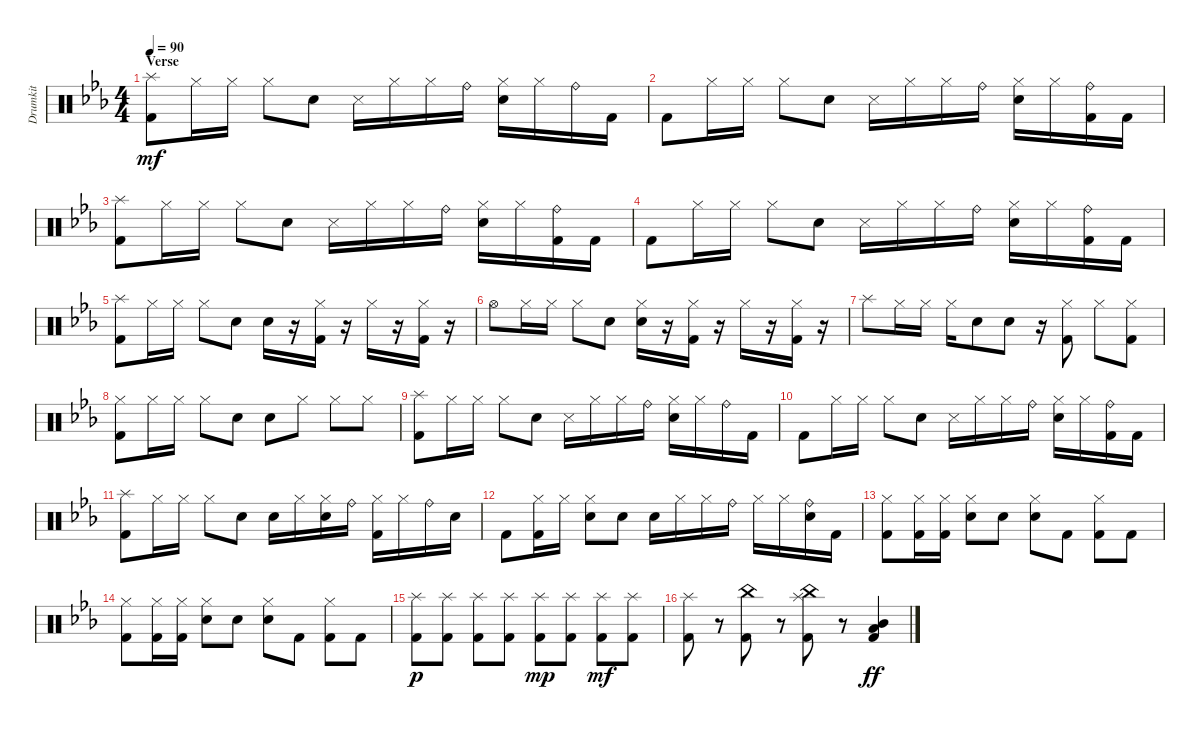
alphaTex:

\track ("Drumkit" "Drumkit") {instrument percussion}
\staff {score}
\articulation defaults
\ts (4 4)
\section ("" "Verse")
\tempo 90
\clef neutral
\ks cminor
("Kick (hit) 2" "Splash (hit)").8{dy mf} "Hi-Hat (closed)".16 "Hi-Hat (closed)".16 "Hi-Hat (closed)".8 "Snare (hit) 2".8 "Snare (side stick) 3".16 "Hi-Hat (closed)".16 "Hi-Hat (closed)".16 "Ride (bell)".16 ("Hi-Hat (closed)" "Snare (hit) 2").16 "Hi-Hat (closed)".16 "Ride (bell)".16 "Kick (hit) 2".16 |
"Kick (hit) 2".8 "Hi-Hat (closed)".16 "Hi-Hat (closed)".16 "Hi-Hat (closed)".8 "Snare (hit) 2".8 "Snare (side stick) 3".16 "Hi-Hat (closed)".16 "Hi-Hat (closed)".16 "Ride (bell)".16 ("Hi-Hat (closed)" "Snare (hit) 2").16 "Hi-Hat (closed)".16 ("Ride (bell)" "Kick (hit) 2").16 "Kick (hit) 2".16 |
("Kick (hit) 2" "Splash (hit)").8 "Hi-Hat (closed)".16 "Hi-Hat (closed)".16 "Hi-Hat (closed)".8 "Snare (hit) 2".8 "Snare (side stick) 3".16 "Hi-Hat (closed)".16 "Hi-Hat (closed)".16 "Ride (bell)".16 ("Hi-Hat (closed)" "Snare (hit) 2").16 "Hi-Hat (closed)".16 ("Ride (bell)" "Kick (hit) 2").16 "Kick (hit) 2".16 |
"Kick (hit) 2".8 "Hi-Hat (closed)".16 "Hi-Hat (closed)".16 "Hi-Hat (closed)".8 "Snare (hit) 2".8 "Snare (side stick) 3".16 "Hi-Hat (closed)".16 "Hi-Hat (closed)".16 "Ride (bell)".16 ("Hi-Hat (closed)" "Snare (hit) 2").16 "Hi-Hat (closed)".16 ("Ride (bell)" "Kick (hit) 2").16 "Kick (hit) 2".16 |
("Kick (hit) 2" "Splash (hit)").8 "Hi-Hat (closed)".16 "Hi-Hat (closed)".16 "Hi-Hat (closed)".8 "Snare (hit) 2".8 "Snare (hit) 2".16 r.16 ("Hi-Hat (closed)" "Kick (hit) 2").16 r.16 "Hi-Hat (closed)".16 r.16 ("Kick (hit) 2" "Hi-Hat (closed)").16 r.16 |
"Hi-Hat (open)".8 "Hi-Hat (closed)".16 "Hi-Hat (closed)".16 "Hi-Hat (closed)".8 "Snare (hit) 2".8 ("Snare (hit) 2" "Hi-Hat (closed)").16 r.16 ("Kick (hit) 2" "Hi-Hat (closed)").16 r.16 "Hi-Hat (closed)".16 r.16 ("Kick (hit) 2" "Hi-Hat (closed)").16 r.16 |
"Splash (hit)".8 "Hi-Hat (closed)".16 "Hi-Hat (closed)".16 "Hi-Hat (closed)".16 "Snare (hit) 2".8 "Snare (hit) 2".8 r.16 ("Hi-Hat (closed)" "Kick (hit) 2").8 "Hi-Hat (closed)".8 ("Kick (hit) 2" "Hi-Hat (closed)").8 |
("Kick (hit) 2" "Hi-Hat (closed)").8 "Hi-Hat (closed)".16 "Hi-Hat (closed)".16 "Hi-Hat (closed)".8 "Snare (hit) 2".8 "Snare (hit) 2".8 "Hi-Hat (closed)".8 "Hi-Hat (closed)".8 "Hi-Hat (closed)".8 |
("Kick (hit) 2" "Splash (hit)").8 "Hi-Hat (closed)".16 "Hi-Hat (closed)".16 "Hi-Hat (closed)".8 "Snare (hit) 2".8 "Snare (side stick) 3".16 "Hi-Hat (closed)".16 "Hi-Hat (closed)".16 "Ride (bell)".16 ("Hi-Hat (closed)" "Snare (hit) 2").16 "Hi-Hat (closed)".16 "Ride (bell)".16 "Kick (hit) 2".16 |
"Kick (hit) 2".8 "Hi-Hat (closed)".16 "Hi-Hat (closed)".16 "Hi-Hat (closed)".8 "Snare (hit) 2".8 "Snare (side stick) 3".16 "Hi-Hat (closed)".16 "Hi-Hat (closed)".16 "Ride (bell)".16 ("Hi-Hat (closed)" "Snare (hit) 2").16 "Hi-Hat (closed)".16 ("Ride (bell)" "Kick (hit) 2").16 "Kick (hit) 2".16 |
("Kick (hit) 2" "Splash (hit)").8 "Hi-Hat (closed)".16 "Hi-Hat (closed)".16 "Hi-Hat (closed)".8 "Snare (hit) 2".8 "Snare (hit) 2".16 "Hi-Hat (closed)".16 ("Hi-Hat (closed)" "Snare (hit) 2").16 "Ride (bell)".16 ("Hi-Hat (closed)" "Kick (hit) 2").16 "Hi-Hat (closed)".16 "Ride (bell)".16 "Snare (hit) 2".16 |
"Kick (hit) 2".8 ("Hi-Hat (closed)" "Kick (hit) 2").16 "Hi-Hat (closed)".16 ("Hi-Hat (closed)" "Snare (hit) 2").8 "Snare (hit) 2".8 "Snare (hit) 2".16 "Hi-Hat (closed)".16 "Hi-Hat (closed)".16 "Ride (bell)".16 "Hi-Hat (closed)".16 "Hi-Hat (closed)".16 ("Ride (bell)" "Snare (hit) 2").16 "Kick (hit) 2".16 |
("Kick (hit) 2" "Hi-Hat (closed)").8 ("Hi-Hat (closed)" "Kick (hit) 2").16 ("Hi-Hat (closed)" "Kick (hit) 2").16 ("Hi-Hat (closed)" "Snare (hit) 2").8 "Snare (hit) 2".8 ("Snare (hit) 2" "Hi-Hat (closed)").8 "Kick (hit) 2".8 ("Hi-Hat (closed)" "Kick (hit) 2").8 "Kick (hit) 2".8 |
("Kick (hit) 2" "Hi-Hat (closed)").8 ("Hi-Hat (closed)" "Kick (hit) 2").16 ("Hi-Hat (closed)" "Kick (hit) 2").16 ("Hi-Hat (closed)" "Snare (hit) 2").8 "Snare (hit) 2".8 ("Snare (hit) 2" "Hi-Hat (closed)").8 "Kick (hit) 2".8 ("Hi-Hat (closed)" "Kick (hit) 2").8 "Kick (hit) 2".8 |
("Kick (hit) 2" "Splash (hit)").8{dy p} ("Kick (hit) 2" "Splash (hit)").8 ("Kick (hit) 2" "Splash (hit)").8 ("Kick (hit) 2" "Splash (hit)").8 ("Kick (hit) 2" "Splash (hit)").8{dy mp} ("Kick (hit) 2" "Splash (hit)").8 ("Kick (hit) 2" "Splash (hit)").8{dy mf} ("Kick (hit) 2" "Splash (hit)").8 |
("Splash (hit)" "Kick (hit) 2").8 r.8 ("Kick (hit) 2" "China (hit)").8 r.8 ("China (hit)" "Splash (hit)" "Kick (hit) 2").8 r.8 ("Low Tom (hit)" "Mid Tom (hit)" "Kick (hit) 2").4{dy ff}
